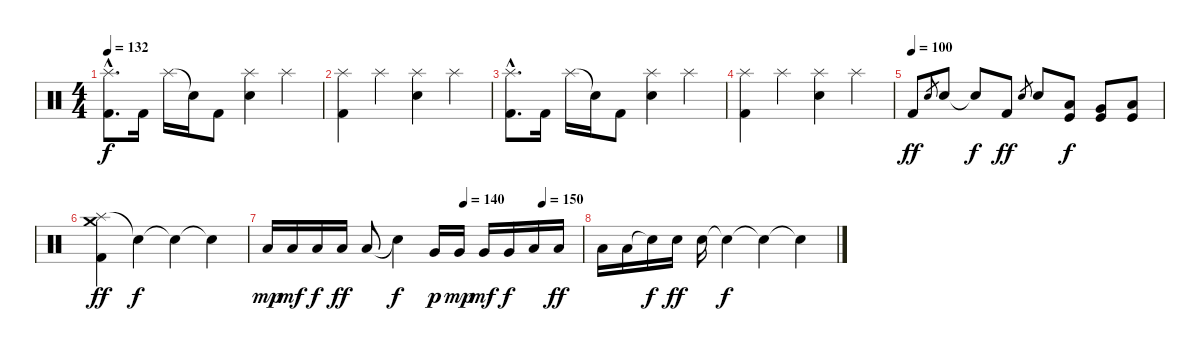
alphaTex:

\track "" {instrument percussion}
\staff {score}
\articulation defaults
\ts (4 4)
\tempo 132
\clef neutral
\ks c
("Splash (hit)"{hac} "Kick (hit) 2"{hac}).8{d dy f} "Kick (hit) 2".16 "Splash (hit)".16 "Snare (hit)"{t}.16 "Kick (hit) 2".8 ("Splash (hit)" "Electric Snare (hit)").4 "Splash (hit)".4 |
("Splash (hit)" "Kick (hit) 2").4 "Splash (hit)".4 ("Splash (hit)" "Electric Snare (hit)").4 "Splash (hit)".4 |
("Splash (hit)"{hac} "Kick (hit) 2"{hac}).8{d} "Kick (hit) 2".16 "Splash (hit)".16 "Snare (hit)"{t}.16 "Kick (hit) 2".8 ("Splash (hit)" "Electric Snare (hit)").4 "Splash (hit)".4 |
("Splash (hit)" "Kick (hit) 2").4 "Splash (hit)".4 ("Splash (hit)" "Electric Snare (hit)").4 "Splash (hit)".4 |
\tempo (100)
"Kick (hit) 2".8{dy ff} "Electric Snare (hit)".8{gr} "Electric Snare (hit)".8 "Snare (hit)"{t}.8{dy f} "Kick (hit) 2".8{dy ff} "Electric Snare (hit)".8{gr} "Electric Snare (hit)".8 ("Low Tom (hit)" "Kick (hit)").8{dy f} ("Very Low Tom (hit)" "Kick (hit)").8 ("Low Floor Tom (hit)" "Kick (hit)").8 |
("Splash (hit)" "Kick (hit) 2" "Crash medium (hit)").4{dy ff} "Snare (hit)"{t}.4{dy f} "Snare (hit)"{t}.4 "Snare (hit)"{t}.4 |
\tempo (140 0.625)
\tempo (150 0.875)
"Low Tom (hit)".16{dy mp} "Low Tom (hit)".16{dy mf} "Low Tom (hit)".16{dy f} "Low Tom (hit)".16{dy ff} "Low Tom (hit)".8 "Snare (hit)"{t}.4{dy f} "Very Low Tom (hit)".16{dy p} "Very Low Tom (hit)".16{dy mp} "Very Low Tom (hit)".16{dy mf} "Very Low Tom (hit)".16{dy f} "Low Floor Tom (hit)".16 "Low Floor Tom (hit)".16{dy ff} |
"Low Floor Tom (hit)".16 "Low Floor Tom (hit)".16 "Snare (hit)"{t}.16{dy f} "Electric Snare (hit)".16{dy ff} "Electric Snare (hit)".16 "Snare (hit)"{t}.4{dy f} "Snare (hit)"{t}.4 "Snare (hit)"{t}.4
